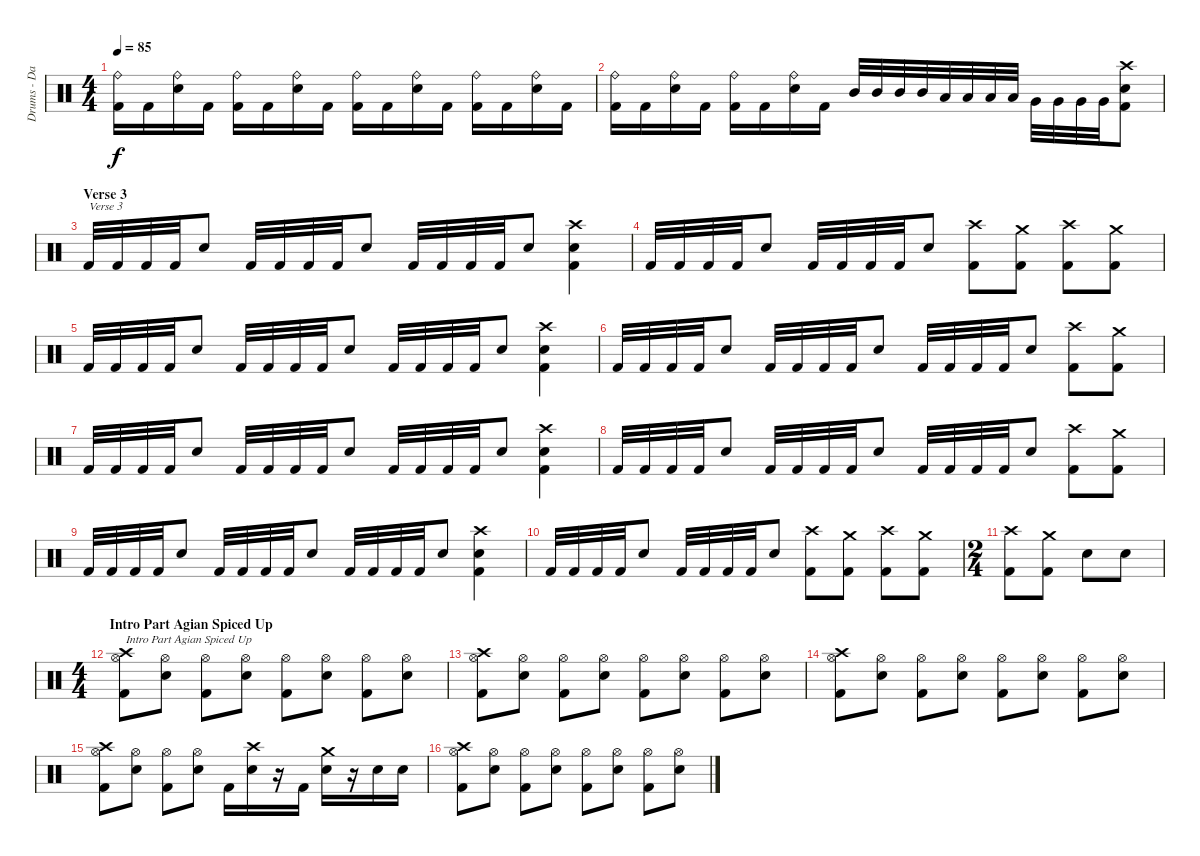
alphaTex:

\track ("Drums - Daniel Zimmermann" "Drums - Da") {instrument percussion}
\staff {score}
\articulation defaults
\ts (4 4)
\tempo 85
\clef neutral
\ks c
("Ride (bell)" "Kick (hit) 2").16{dy f} "Kick (hit) 2".16 ("Ride (bell)" "Snare (hit) 2").16 "Kick (hit) 2".16 ("Ride (bell)" "Kick (hit) 2").16 "Kick (hit) 2".16 ("Ride (bell)" "Snare (hit) 2").16 "Kick (hit) 2".16 ("Ride (bell)" "Kick (hit) 2").16 "Kick (hit) 2".16 ("Ride (bell)" "Snare (hit) 2").16 "Kick (hit) 2".16 ("Ride (bell)" "Kick (hit) 2").16 "Kick (hit) 2".16 ("Ride (bell)" "Snare (hit) 2").16 "Kick (hit) 2".16 |
("Ride (bell)" "Kick (hit) 2").16 "Kick (hit) 2".16 ("Ride (bell)" "Snare (hit) 2").16 "Kick (hit) 2".16 ("Ride (bell)" "Kick (hit) 2").16 "Kick (hit) 2".16 ("Ride (bell)" "Snare (hit) 2").16 "Kick (hit) 2".16 "Mid Tom (hit)".32 "Mid Tom (hit)".32 "Mid Tom (hit)".32 "Mid Tom (hit)".32 "Low Tom (hit)".32 "Low Tom (hit)".32 "Low Tom (hit)".32 "Low Tom (hit)".32 "Very Low Tom (hit)".32 "Very Low Tom (hit)".32 "Very Low Tom (hit)".32 "Very Low Tom (hit)".32 ("Kick (hit) 2" "Snare (hit) 2" "Crash high (hit)").8 |
\section ("" "Verse 3")
"Kick (hit) 2".32{txt "Verse 3"} "Kick (hit) 2".32 "Kick (hit) 2".32 "Kick (hit) 2".32 "Snare (hit) 2".8 "Kick (hit) 2".32 "Kick (hit) 2".32 "Kick (hit) 2".32 "Kick (hit) 2".32 "Snare (hit) 2".8 "Kick (hit) 2".32 "Kick (hit) 2".32 "Kick (hit) 2".32 "Kick (hit) 2".32 "Snare (hit) 2".8 ("Kick (hit) 2" "Snare (hit) 2" "Crash high (hit)").4 |
"Kick (hit) 2".32 "Kick (hit) 2".32 "Kick (hit) 2".32 "Kick (hit) 2".32 "Snare (hit) 2".8 "Kick (hit) 2".32 "Kick (hit) 2".32 "Kick (hit) 2".32 "Kick (hit) 2".32 "Snare (hit) 2".8 ("Kick (hit) 2" "Crash high (hit)").8 ("Kick (hit) 2" "Crash medium (hit)").8 ("Kick (hit) 2" "Crash high (hit)").8 ("Kick (hit) 2" "Crash medium (hit)").8 |
"Kick (hit) 2".32 "Kick (hit) 2".32 "Kick (hit) 2".32 "Kick (hit) 2".32 "Snare (hit) 2".8 "Kick (hit) 2".32 "Kick (hit) 2".32 "Kick (hit) 2".32 "Kick (hit) 2".32 "Snare (hit) 2".8 "Kick (hit) 2".32 "Kick (hit) 2".32 "Kick (hit) 2".32 "Kick (hit) 2".32 "Snare (hit) 2".8 ("Kick (hit) 2" "Snare (hit) 2" "Crash high (hit)").4 |
"Kick (hit) 2".32 "Kick (hit) 2".32 "Kick (hit) 2".32 "Kick (hit) 2".32 "Snare (hit) 2".8 "Kick (hit) 2".32 "Kick (hit) 2".32 "Kick (hit) 2".32 "Kick (hit) 2".32 "Snare (hit) 2".8 "Kick (hit) 2".32 "Kick (hit) 2".32 "Kick (hit) 2".32 "Kick (hit) 2".32 "Snare (hit) 2".8 ("Kick (hit) 2" "Crash high (hit)").8 ("Kick (hit) 2" "Crash medium (hit)").8 |
"Kick (hit) 2".32 "Kick (hit) 2".32 "Kick (hit) 2".32 "Kick (hit) 2".32 "Snare (hit) 2".8 "Kick (hit) 2".32 "Kick (hit) 2".32 "Kick (hit) 2".32 "Kick (hit) 2".32 "Snare (hit) 2".8 "Kick (hit) 2".32 "Kick (hit) 2".32 "Kick (hit) 2".32 "Kick (hit) 2".32 "Snare (hit) 2".8 ("Kick (hit) 2" "Snare (hit) 2" "Crash high (hit)").4 |
"Kick (hit) 2".32 "Kick (hit) 2".32 "Kick (hit) 2".32 "Kick (hit) 2".32 "Snare (hit) 2".8 "Kick (hit) 2".32 "Kick (hit) 2".32 "Kick (hit) 2".32 "Kick (hit) 2".32 "Snare (hit) 2".8 "Kick (hit) 2".32 "Kick (hit) 2".32 "Kick (hit) 2".32 "Kick (hit) 2".32 "Snare (hit) 2".8 ("Kick (hit) 2" "Crash high (hit)").8 ("Kick (hit) 2" "Crash medium (hit)").8 |
"Kick (hit) 2".32 "Kick (hit) 2".32 "Kick (hit) 2".32 "Kick (hit) 2".32 "Snare (hit) 2".8 "Kick (hit) 2".32 "Kick (hit) 2".32 "Kick (hit) 2".32 "Kick (hit) 2".32 "Snare (hit) 2".8 "Kick (hit) 2".32 "Kick (hit) 2".32 "Kick (hit) 2".32 "Kick (hit) 2".32 "Snare (hit) 2".8 ("Kick (hit) 2" "Snare (hit) 2" "Crash high (hit)").4 |
"Kick (hit) 2".32 "Kick (hit) 2".32 "Kick (hit) 2".32 "Kick (hit) 2".32 "Snare (hit) 2".8 "Kick (hit) 2".32 "Kick (hit) 2".32 "Kick (hit) 2".32 "Kick (hit) 2".32 "Snare (hit) 2".8 ("Kick (hit) 2" "Crash high (hit)").8 ("Kick (hit) 2" "Crash medium (hit)").8 ("Kick (hit) 2" "Crash high (hit)").8 ("Kick (hit) 2" "Crash medium (hit)").8 |
\ts (2 4)
("Kick (hit) 2" "Crash high (hit)").8 ("Kick (hit) 2" "Crash medium (hit)").8 "Snare (hit) 2".8 "Snare (hit) 2".8 |
\ts (4 4)
\section ("" "Intro Part Agian Spiced Up")
("Hi-Hat (open)" "Kick (hit) 2" "Crash high (hit)").8{txt "Intro Part Agian Spiced Up"} ("Hi-Hat (open)" "Snare (hit) 2").8 ("Hi-Hat (open)" "Kick (hit) 2").8 ("Hi-Hat (open)" "Snare (hit) 2").8 ("Hi-Hat (open)" "Kick (hit) 2").8 ("Hi-Hat (open)" "Snare (hit) 2").8 ("Hi-Hat (open)" "Kick (hit) 2").8 ("Hi-Hat (open)" "Snare (hit) 2").8 |
("Hi-Hat (open)" "Kick (hit) 2" "Crash high (hit)").8 ("Hi-Hat (open)" "Snare (hit) 2").8 ("Hi-Hat (open)" "Kick (hit) 2").8 ("Hi-Hat (open)" "Snare (hit) 2").8 ("Hi-Hat (open)" "Kick (hit) 2").8 ("Hi-Hat (open)" "Snare (hit) 2").8 ("Hi-Hat (open)" "Kick (hit) 2").8 ("Hi-Hat (open)" "Snare (hit) 2").8 |
("Hi-Hat (open)" "Kick (hit) 2" "Crash high (hit)").8 ("Hi-Hat (open)" "Snare (hit) 2").8 ("Hi-Hat (open)" "Kick (hit) 2").8 ("Hi-Hat (open)" "Snare (hit) 2").8 ("Hi-Hat (open)" "Kick (hit) 2").8 ("Hi-Hat (open)" "Snare (hit) 2").8 ("Hi-Hat (open)" "Kick (hit) 2").8 ("Hi-Hat (open)" "Snare (hit) 2").8 |
("Hi-Hat (open)" "Kick (hit) 2" "Crash high (hit)").8 ("Hi-Hat (open)" "Snare (hit) 2").8 ("Hi-Hat (open)" "Kick (hit) 2").8 ("Hi-Hat (open)" "Snare (hit) 2").8 "Kick (hit) 2".16 ("Snare (hit) 2" "Crash high (hit)").16 r.16 "Kick (hit) 2".16 ("Snare (hit) 2" "Crash medium (hit)").16 r.16 "Snare (hit) 2".16 "Snare (hit) 2".16 |
("Hi-Hat (open)" "Kick (hit) 2" "Crash high (hit)").8 ("Hi-Hat (open)" "Snare (hit) 2").8 ("Hi-Hat (open)" "Kick (hit) 2").8 ("Hi-Hat (open)" "Snare (hit) 2").8 ("Hi-Hat (open)" "Kick (hit) 2").8 ("Hi-Hat (open)" "Snare (hit) 2").8 ("Hi-Hat (open)" "Kick (hit) 2").8 ("Hi-Hat (open)" "Snare (hit) 2").8
